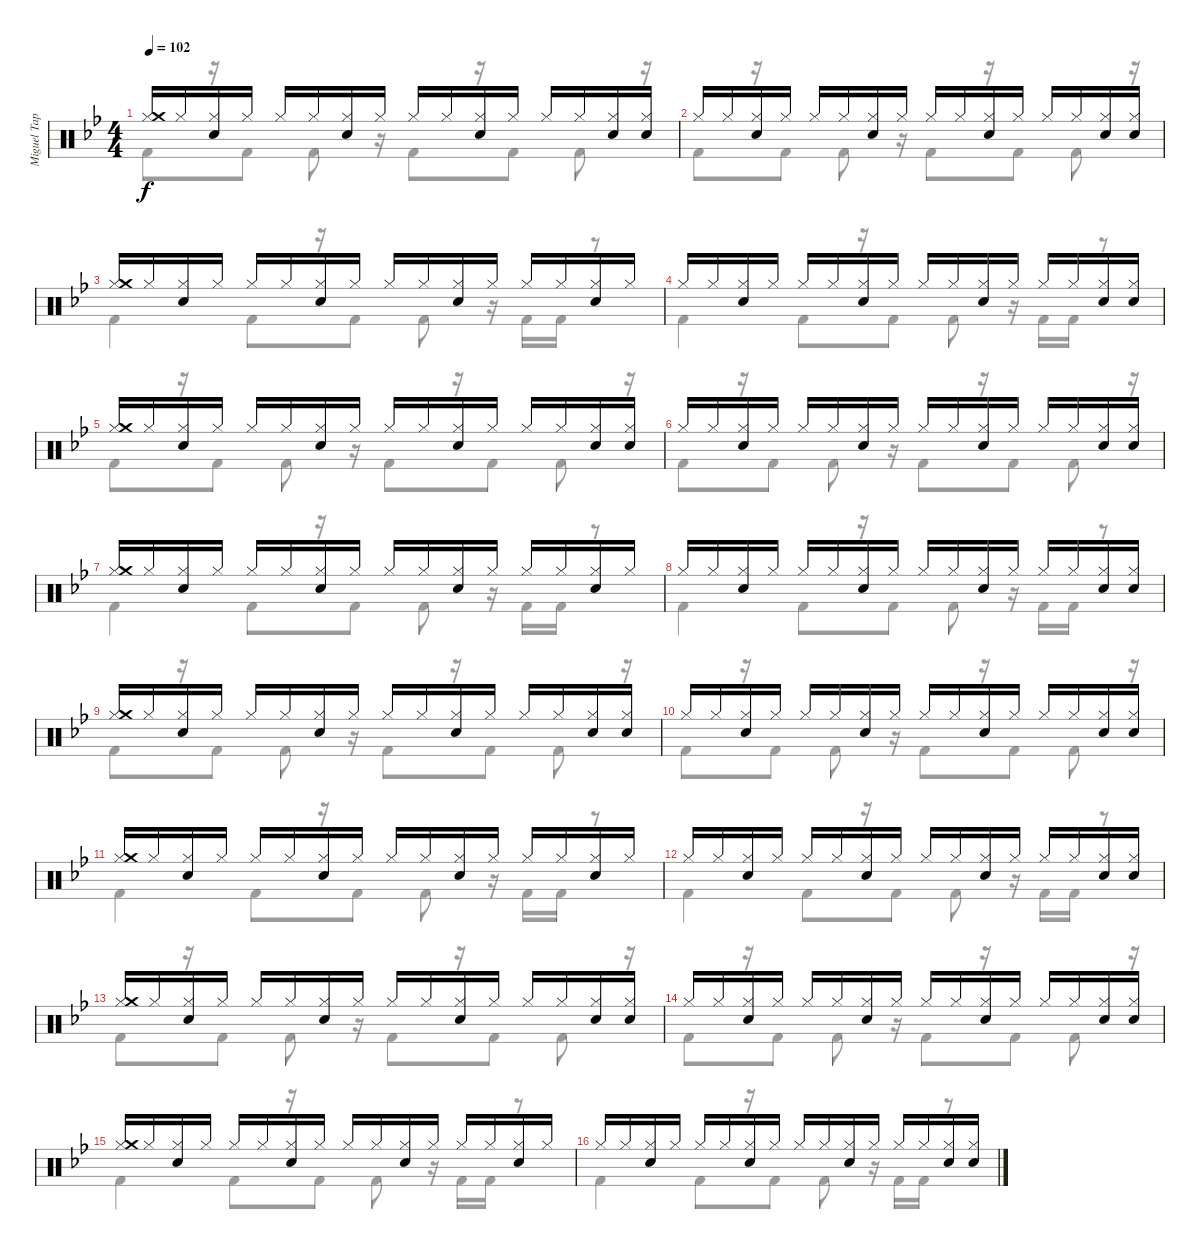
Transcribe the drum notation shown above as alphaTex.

\track ("Miguel Tapia (Batería)" "Miguel Tap") {instrument percussion}
\staff {score}
\articulation defaults
\voice
\ts (4 4)
\tempo 102
\clef neutral
\ks bb
("Hi-Hat (closed)" "Crash medium (hit)").16{dy f} "Hi-Hat (closed)".16 ("Hi-Hat (closed)" "Snare (hit) 2").16 "Hi-Hat (closed)".16 "Hi-Hat (closed)".16 "Hi-Hat (closed)".16 ("Hi-Hat (closed)" "Snare (hit) 2").16 "Hi-Hat (closed)".16 "Hi-Hat (closed)".16 "Hi-Hat (closed)".16 ("Hi-Hat (closed)" "Snare (hit) 2").16 "Hi-Hat (closed)".16 "Hi-Hat (closed)".16 "Hi-Hat (closed)".16 ("Hi-Hat (closed)" "Snare (hit) 2").16 ("Hi-Hat (closed)" "Snare (hit) 2").16 |
"Hi-Hat (closed)".16 "Hi-Hat (closed)".16 ("Hi-Hat (closed)" "Snare (hit) 2").16 "Hi-Hat (closed)".16 "Hi-Hat (closed)".16 "Hi-Hat (closed)".16 ("Hi-Hat (closed)" "Snare (hit) 2").16 "Hi-Hat (closed)".16 "Hi-Hat (closed)".16 "Hi-Hat (closed)".16 ("Hi-Hat (closed)" "Snare (hit) 2").16 "Hi-Hat (closed)".16 "Hi-Hat (closed)".16 "Hi-Hat (closed)".16 ("Hi-Hat (closed)" "Snare (hit) 2").16 ("Hi-Hat (closed)" "Snare (hit) 2").16 |
("Hi-Hat (closed)" "Crash medium (hit)").16 "Hi-Hat (closed)".16 ("Hi-Hat (closed)" "Snare (hit) 2").16 "Hi-Hat (closed)".16 "Hi-Hat (closed)".16 "Hi-Hat (closed)".16 ("Hi-Hat (closed)" "Snare (hit) 2").16 "Hi-Hat (closed)".16 "Hi-Hat (closed)".16 "Hi-Hat (closed)".16 ("Hi-Hat (closed)" "Snare (hit) 2").16 "Hi-Hat (closed)".16 "Hi-Hat (closed)".16 "Hi-Hat (closed)".16 ("Hi-Hat (closed)" "Snare (hit) 2").16 "Hi-Hat (closed)".16 |
"Hi-Hat (closed)".16 "Hi-Hat (closed)".16 ("Hi-Hat (closed)" "Snare (hit) 2").16 "Hi-Hat (closed)".16 "Hi-Hat (closed)".16 "Hi-Hat (closed)".16 ("Hi-Hat (closed)" "Snare (hit) 2").16 "Hi-Hat (closed)".16 "Hi-Hat (closed)".16 "Hi-Hat (closed)".16 ("Hi-Hat (closed)" "Snare (hit) 2").16 "Hi-Hat (closed)".16 "Hi-Hat (closed)".16 "Hi-Hat (closed)".16 ("Hi-Hat (closed)" "Snare (hit) 2").16 ("Hi-Hat (closed)" "Snare (hit) 2").16 |
("Hi-Hat (closed)" "Crash medium (hit)").16 "Hi-Hat (closed)".16 ("Hi-Hat (closed)" "Snare (hit) 2").16 "Hi-Hat (closed)".16 "Hi-Hat (closed)".16 "Hi-Hat (closed)".16 ("Hi-Hat (closed)" "Snare (hit) 2").16 "Hi-Hat (closed)".16 "Hi-Hat (closed)".16 "Hi-Hat (closed)".16 ("Hi-Hat (closed)" "Snare (hit) 2").16 "Hi-Hat (closed)".16 "Hi-Hat (closed)".16 "Hi-Hat (closed)".16 ("Hi-Hat (closed)" "Snare (hit) 2").16 ("Hi-Hat (closed)" "Snare (hit) 2").16 |
"Hi-Hat (closed)".16 "Hi-Hat (closed)".16 ("Hi-Hat (closed)" "Snare (hit) 2").16 "Hi-Hat (closed)".16 "Hi-Hat (closed)".16 "Hi-Hat (closed)".16 ("Hi-Hat (closed)" "Snare (hit) 2").16 "Hi-Hat (closed)".16 "Hi-Hat (closed)".16 "Hi-Hat (closed)".16 ("Hi-Hat (closed)" "Snare (hit) 2").16 "Hi-Hat (closed)".16 "Hi-Hat (closed)".16 "Hi-Hat (closed)".16 ("Hi-Hat (closed)" "Snare (hit) 2").16 ("Hi-Hat (closed)" "Snare (hit) 2").16 |
("Hi-Hat (closed)" "Crash medium (hit)").16 "Hi-Hat (closed)".16 ("Hi-Hat (closed)" "Snare (hit) 2").16 "Hi-Hat (closed)".16 "Hi-Hat (closed)".16 "Hi-Hat (closed)".16 ("Hi-Hat (closed)" "Snare (hit) 2").16 "Hi-Hat (closed)".16 "Hi-Hat (closed)".16 "Hi-Hat (closed)".16 ("Hi-Hat (closed)" "Snare (hit) 2").16 "Hi-Hat (closed)".16 "Hi-Hat (closed)".16 "Hi-Hat (closed)".16 ("Hi-Hat (closed)" "Snare (hit) 2").16 "Hi-Hat (closed)".16 |
"Hi-Hat (closed)".16 "Hi-Hat (closed)".16 ("Hi-Hat (closed)" "Snare (hit) 2").16 "Hi-Hat (closed)".16 "Hi-Hat (closed)".16 "Hi-Hat (closed)".16 ("Hi-Hat (closed)" "Snare (hit) 2").16 "Hi-Hat (closed)".16 "Hi-Hat (closed)".16 "Hi-Hat (closed)".16 ("Hi-Hat (closed)" "Snare (hit) 2").16 "Hi-Hat (closed)".16 "Hi-Hat (closed)".16 "Hi-Hat (closed)".16 ("Hi-Hat (closed)" "Snare (hit) 2").16 ("Hi-Hat (closed)" "Snare (hit) 2").16 |
("Hi-Hat (closed)" "Crash medium (hit)").16 "Hi-Hat (closed)".16 ("Hi-Hat (closed)" "Snare (hit) 2").16 "Hi-Hat (closed)".16 "Hi-Hat (closed)".16 "Hi-Hat (closed)".16 ("Hi-Hat (closed)" "Snare (hit) 2").16 "Hi-Hat (closed)".16 "Hi-Hat (closed)".16 "Hi-Hat (closed)".16 ("Hi-Hat (closed)" "Snare (hit) 2").16 "Hi-Hat (closed)".16 "Hi-Hat (closed)".16 "Hi-Hat (closed)".16 ("Hi-Hat (closed)" "Snare (hit) 2").16 ("Hi-Hat (closed)" "Snare (hit) 2").16 |
"Hi-Hat (closed)".16 "Hi-Hat (closed)".16 ("Hi-Hat (closed)" "Snare (hit) 2").16 "Hi-Hat (closed)".16 "Hi-Hat (closed)".16 "Hi-Hat (closed)".16 ("Hi-Hat (closed)" "Snare (hit) 2").16 "Hi-Hat (closed)".16 "Hi-Hat (closed)".16 "Hi-Hat (closed)".16 ("Hi-Hat (closed)" "Snare (hit) 2").16 "Hi-Hat (closed)".16 "Hi-Hat (closed)".16 "Hi-Hat (closed)".16 ("Hi-Hat (closed)" "Snare (hit) 2").16 ("Hi-Hat (closed)" "Snare (hit) 2").16 |
("Hi-Hat (closed)" "Crash medium (hit)").16 "Hi-Hat (closed)".16 ("Hi-Hat (closed)" "Snare (hit) 2").16 "Hi-Hat (closed)".16 "Hi-Hat (closed)".16 "Hi-Hat (closed)".16 ("Hi-Hat (closed)" "Snare (hit) 2").16 "Hi-Hat (closed)".16 "Hi-Hat (closed)".16 "Hi-Hat (closed)".16 ("Hi-Hat (closed)" "Snare (hit) 2").16 "Hi-Hat (closed)".16 "Hi-Hat (closed)".16 "Hi-Hat (closed)".16 ("Hi-Hat (closed)" "Snare (hit) 2").16 "Hi-Hat (closed)".16 |
"Hi-Hat (closed)".16 "Hi-Hat (closed)".16 ("Hi-Hat (closed)" "Snare (hit) 2").16 "Hi-Hat (closed)".16 "Hi-Hat (closed)".16 "Hi-Hat (closed)".16 ("Hi-Hat (closed)" "Snare (hit) 2").16 "Hi-Hat (closed)".16 "Hi-Hat (closed)".16 "Hi-Hat (closed)".16 ("Hi-Hat (closed)" "Snare (hit) 2").16 "Hi-Hat (closed)".16 "Hi-Hat (closed)".16 "Hi-Hat (closed)".16 ("Hi-Hat (closed)" "Snare (hit) 2").16 ("Hi-Hat (closed)" "Snare (hit) 2").16 |
("Hi-Hat (closed)" "Crash medium (hit)").16 "Hi-Hat (closed)".16 ("Hi-Hat (closed)" "Snare (hit) 2").16 "Hi-Hat (closed)".16 "Hi-Hat (closed)".16 "Hi-Hat (closed)".16 ("Hi-Hat (closed)" "Snare (hit) 2").16 "Hi-Hat (closed)".16 "Hi-Hat (closed)".16 "Hi-Hat (closed)".16 ("Hi-Hat (closed)" "Snare (hit) 2").16 "Hi-Hat (closed)".16 "Hi-Hat (closed)".16 "Hi-Hat (closed)".16 ("Hi-Hat (closed)" "Snare (hit) 2").16 ("Hi-Hat (closed)" "Snare (hit) 2").16 |
"Hi-Hat (closed)".16 "Hi-Hat (closed)".16 ("Hi-Hat (closed)" "Snare (hit) 2").16 "Hi-Hat (closed)".16 "Hi-Hat (closed)".16 "Hi-Hat (closed)".16 ("Hi-Hat (closed)" "Snare (hit) 2").16 "Hi-Hat (closed)".16 "Hi-Hat (closed)".16 "Hi-Hat (closed)".16 ("Hi-Hat (closed)" "Snare (hit) 2").16 "Hi-Hat (closed)".16 "Hi-Hat (closed)".16 "Hi-Hat (closed)".16 ("Hi-Hat (closed)" "Snare (hit) 2").16 ("Hi-Hat (closed)" "Snare (hit) 2").16 |
("Hi-Hat (closed)" "Crash medium (hit)").16 "Hi-Hat (closed)".16 ("Hi-Hat (closed)" "Snare (hit) 2").16 "Hi-Hat (closed)".16 "Hi-Hat (closed)".16 "Hi-Hat (closed)".16 ("Hi-Hat (closed)" "Snare (hit) 2").16 "Hi-Hat (closed)".16 "Hi-Hat (closed)".16 "Hi-Hat (closed)".16 ("Hi-Hat (closed)" "Snare (hit) 2").16 "Hi-Hat (closed)".16 "Hi-Hat (closed)".16 "Hi-Hat (closed)".16 ("Hi-Hat (closed)" "Snare (hit) 2").16 "Hi-Hat (closed)".16 |
"Hi-Hat (closed)".16 "Hi-Hat (closed)".16 ("Hi-Hat (closed)" "Snare (hit) 2").16 "Hi-Hat (closed)".16 "Hi-Hat (closed)".16 "Hi-Hat (closed)".16 ("Hi-Hat (closed)" "Snare (hit) 2").16 "Hi-Hat (closed)".16 "Hi-Hat (closed)".16 "Hi-Hat (closed)".16 ("Hi-Hat (closed)" "Snare (hit) 2").16 "Hi-Hat (closed)".16 "Hi-Hat (closed)".16 "Hi-Hat (closed)".16 ("Hi-Hat (closed)" "Snare (hit) 2").16 ("Hi-Hat (closed)" "Snare (hit) 2").16
\voice
\clef neutral
\ottava regular
\simile none
\ks bb "Kick (hit) 2".8{dy f}
r.16 "Kick (hit) 2".8 "Kick (hit) 2".8 r.16 "Kick (hit) 2".8 r.16 "Kick (hit) 2".8 "Kick (hit) 2".8 r.16 |
"Kick (hit) 2".8 r.16 "Kick (hit) 2".8 "Kick (hit) 2".8 r.16 "Kick (hit) 2".8 r.16 "Kick (hit) 2".8 "Kick (hit) 2".8 r.16 |
"Kick (hit) 2".4 "Kick (hit) 2".8 r.16 "Kick (hit) 2".8 "Kick (hit) 2".8 r.16 "Kick (hit) 2".16 "Kick (hit) 2".16 r.8 |
"Kick (hit) 2".4 "Kick (hit) 2".8 r.16 "Kick (hit) 2".8 "Kick (hit) 2".8 r.16 "Kick (hit) 2".16 "Kick (hit) 2".16 r.8 |
"Kick (hit) 2".8 r.16 "Kick (hit) 2".8 "Kick (hit) 2".8 r.16 "Kick (hit) 2".8 r.16 "Kick (hit) 2".8 "Kick (hit) 2".8 r.16 |
"Kick (hit) 2".8 r.16 "Kick (hit) 2".8 "Kick (hit) 2".8 r.16 "Kick (hit) 2".8 r.16 "Kick (hit) 2".8 "Kick (hit) 2".8 r.16 |
"Kick (hit) 2".4 "Kick (hit) 2".8 r.16 "Kick (hit) 2".8 "Kick (hit) 2".8 r.16 "Kick (hit) 2".16 "Kick (hit) 2".16 r.8 |
"Kick (hit) 2".4 "Kick (hit) 2".8 r.16 "Kick (hit) 2".8 "Kick (hit) 2".8 r.16 "Kick (hit) 2".16 "Kick (hit) 2".16 r.8 |
"Kick (hit) 2".8 r.16 "Kick (hit) 2".8 "Kick (hit) 2".8 r.16 "Kick (hit) 2".8 r.16 "Kick (hit) 2".8 "Kick (hit) 2".8 r.16 |
"Kick (hit) 2".8 r.16 "Kick (hit) 2".8 "Kick (hit) 2".8 r.16 "Kick (hit) 2".8 r.16 "Kick (hit) 2".8 "Kick (hit) 2".8 r.16 |
"Kick (hit) 2".4 "Kick (hit) 2".8 r.16 "Kick (hit) 2".8 "Kick (hit) 2".8 r.16 "Kick (hit) 2".16 "Kick (hit) 2".16 r.8 |
"Kick (hit) 2".4 "Kick (hit) 2".8 r.16 "Kick (hit) 2".8 "Kick (hit) 2".8 r.16 "Kick (hit) 2".16 "Kick (hit) 2".16 r.8 |
"Kick (hit) 2".8 r.16 "Kick (hit) 2".8 "Kick (hit) 2".8 r.16 "Kick (hit) 2".8 r.16 "Kick (hit) 2".8 "Kick (hit) 2".8 r.16 |
"Kick (hit) 2".8 r.16 "Kick (hit) 2".8 "Kick (hit) 2".8 r.16 "Kick (hit) 2".8 r.16 "Kick (hit) 2".8 "Kick (hit) 2".8 r.16 |
"Kick (hit) 2".4 "Kick (hit) 2".8 r.16 "Kick (hit) 2".8 "Kick (hit) 2".8 r.16 "Kick (hit) 2".16 "Kick (hit) 2".16 r.8 |
"Kick (hit) 2".4 "Kick (hit) 2".8 r.16 "Kick (hit) 2".8 "Kick (hit) 2".8 r.16 "Kick (hit) 2".16 "Kick (hit) 2".16 r.8
